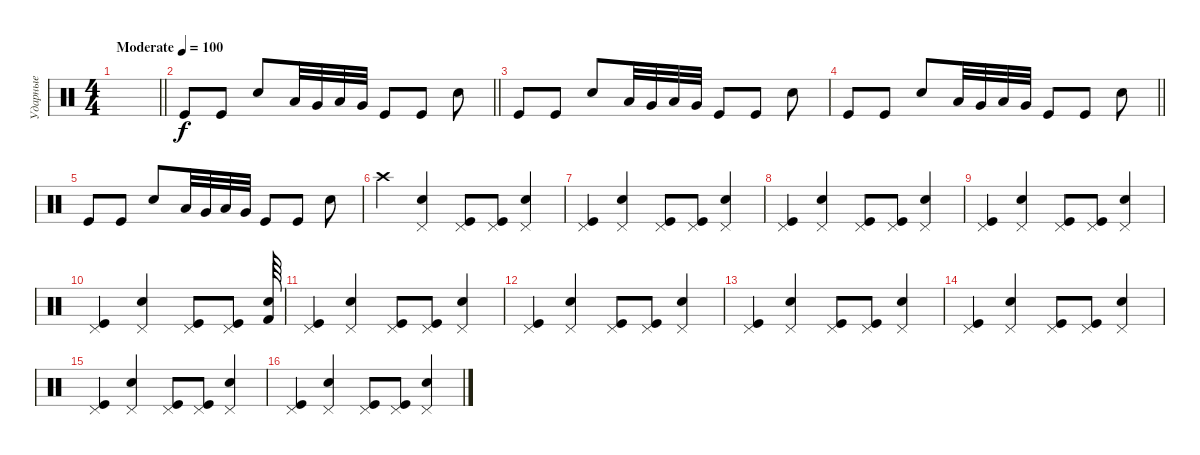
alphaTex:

\track ("Ударные" "Ударные") {instrument percussion}
\staff {score}
\articulation defaults
\ts (4 4)
\tempo (100 "Moderate")
\clef neutral
\barLineRight lightlight
\ks c
|
\barLineRight lightlight "Kick (hit)".8 "Kick (hit)".8 "Snare (hit) 2".8 "Low Tom (hit)".32 "Very Low Tom (hit)".32 "Low Tom (hit)".32 "Very Low Tom (hit)".32 "Kick (hit)".8 "Kick (hit)".8 "Snare (hit) 2".8
|
"Kick (hit)".8 "Kick (hit)".8 "Snare (hit) 2".8 "Low Tom (hit)".32 "Very Low Tom (hit)".32 "Low Tom (hit)".32 "Very Low Tom (hit)".32 "Kick (hit)".8 "Kick (hit)".8 "Snare (hit) 2".8 |
\barLineRight lightlight "Kick (hit)".8 "Kick (hit)".8 "Snare (hit) 2".8 "Low Tom (hit)".32 "Very Low Tom (hit)".32 "Low Tom (hit)".32 "Very Low Tom (hit)".32 "Kick (hit)".8 "Kick (hit)".8 "Snare (hit) 2".8
|
"Kick (hit)".8 "Kick (hit)".8 "Snare (hit) 2".8 "Low Tom (hit)".32 "Very Low Tom (hit)".32 "Low Tom (hit)".32 "Very Low Tom (hit)".32 "Kick (hit)".8 "Kick (hit)".8 "Snare (hit) 2".8 |
"Crash high (hit)".4 ("Pedal Hi-Hat (hit)" "Snare (hit) 2").4 ("Pedal Hi-Hat (hit)" "Kick (hit)").8 ("Pedal Hi-Hat (hit)" "Kick (hit)").8 ("Pedal Hi-Hat (hit)" "Snare (hit) 2").4 |
("Pedal Hi-Hat (hit)" "Kick (hit)").4 ("Pedal Hi-Hat (hit)" "Snare (hit) 2").4 ("Pedal Hi-Hat (hit)" "Kick (hit)").8 ("Pedal Hi-Hat (hit)" "Kick (hit)").8 ("Pedal Hi-Hat (hit)" "Snare (hit) 2").4 |
("Pedal Hi-Hat (hit)" "Kick (hit)").4 ("Pedal Hi-Hat (hit)" "Snare (hit) 2").4 ("Pedal Hi-Hat (hit)" "Kick (hit)").8 ("Pedal Hi-Hat (hit)" "Kick (hit)").8 ("Pedal Hi-Hat (hit)" "Snare (hit) 2").4 |
("Pedal Hi-Hat (hit)" "Kick (hit)").4 ("Pedal Hi-Hat (hit)" "Snare (hit) 2").4 ("Pedal Hi-Hat (hit)" "Kick (hit)").8 ("Pedal Hi-Hat (hit)" "Kick (hit)").8 ("Pedal Hi-Hat (hit)" "Snare (hit) 2").4 |
("Pedal Hi-Hat (hit)" "Kick (hit)").4 ("Pedal Hi-Hat (hit)" "Snare (hit) 2").4 ("Pedal Hi-Hat (hit)" "Kick (hit)").8 ("Pedal Hi-Hat (hit)" "Kick (hit)").8 ("Kick (hit) 2" "Snare (hit) 2").64 |
("Pedal Hi-Hat (hit)" "Kick (hit)").4 ("Pedal Hi-Hat (hit)" "Snare (hit) 2").4 ("Pedal Hi-Hat (hit)" "Kick (hit)").8 ("Pedal Hi-Hat (hit)" "Kick (hit)").8 ("Pedal Hi-Hat (hit)" "Snare (hit) 2").4 |
("Pedal Hi-Hat (hit)" "Kick (hit)").4 ("Pedal Hi-Hat (hit)" "Snare (hit) 2").4 ("Pedal Hi-Hat (hit)" "Kick (hit)").8 ("Pedal Hi-Hat (hit)" "Kick (hit)").8 ("Pedal Hi-Hat (hit)" "Snare (hit) 2").4 |
("Pedal Hi-Hat (hit)" "Kick (hit)").4 ("Pedal Hi-Hat (hit)" "Snare (hit) 2").4 ("Pedal Hi-Hat (hit)" "Kick (hit)").8 ("Pedal Hi-Hat (hit)" "Kick (hit)").8 ("Pedal Hi-Hat (hit)" "Snare (hit) 2").4 |
("Pedal Hi-Hat (hit)" "Kick (hit)").4 ("Pedal Hi-Hat (hit)" "Snare (hit) 2").4 ("Pedal Hi-Hat (hit)" "Kick (hit)").8 ("Pedal Hi-Hat (hit)" "Kick (hit)").8 ("Pedal Hi-Hat (hit)" "Snare (hit) 2").4 |
("Pedal Hi-Hat (hit)" "Kick (hit)").4 ("Pedal Hi-Hat (hit)" "Snare (hit) 2").4 ("Pedal Hi-Hat (hit)" "Kick (hit)").8 ("Pedal Hi-Hat (hit)" "Kick (hit)").8 ("Pedal Hi-Hat (hit)" "Snare (hit) 2").4 |
("Pedal Hi-Hat (hit)" "Kick (hit)").4 ("Pedal Hi-Hat (hit)" "Snare (hit) 2").4 ("Pedal Hi-Hat (hit)" "Kick (hit)").8 ("Pedal Hi-Hat (hit)" "Kick (hit)").8 ("Pedal Hi-Hat (hit)" "Snare (hit) 2").4
